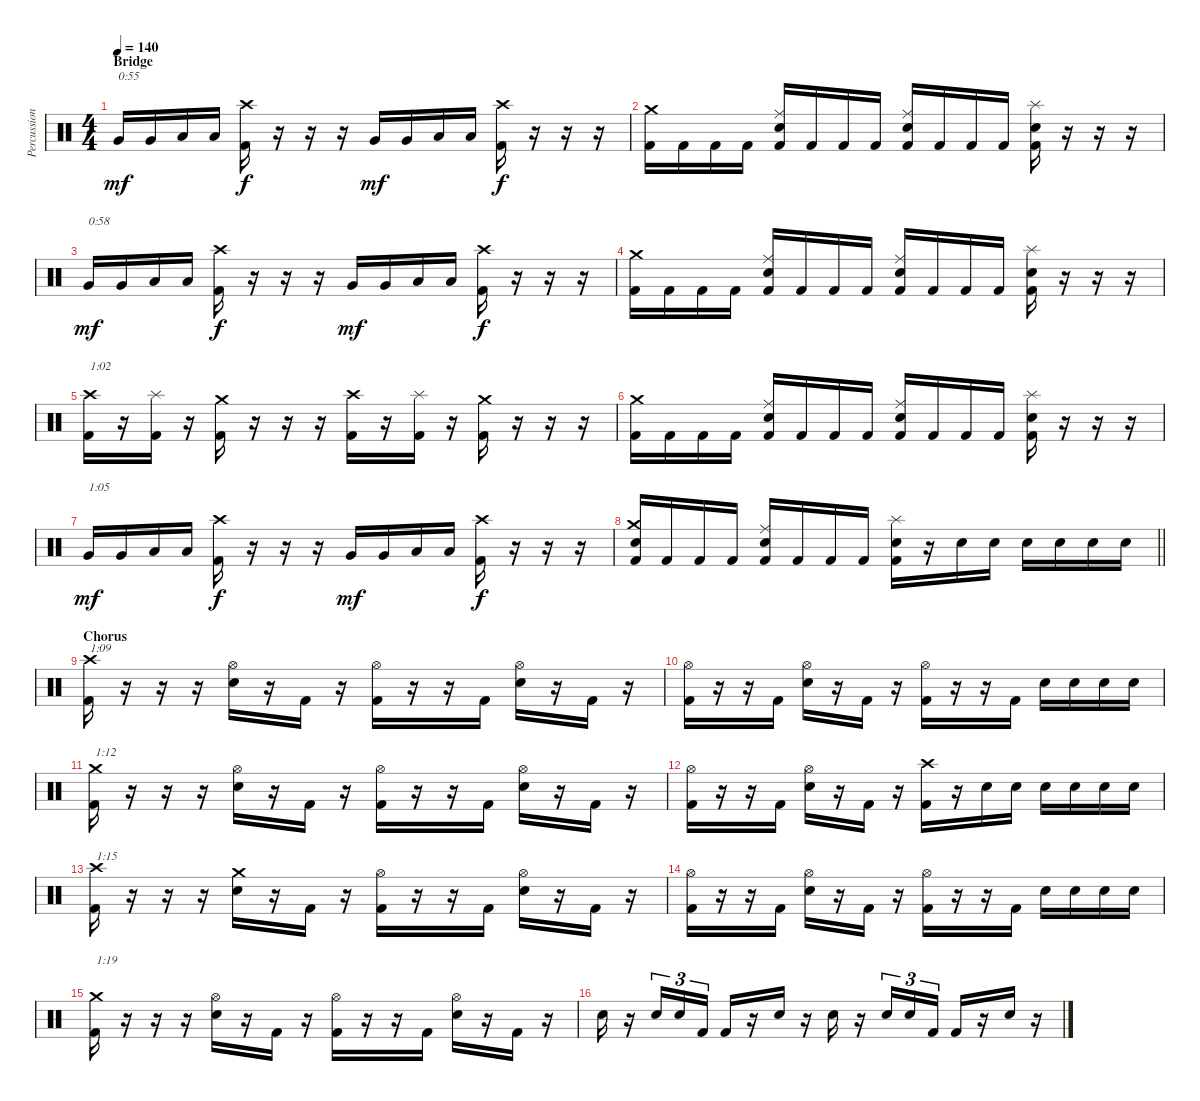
\track ("Percussion" "Percussion") {instrument percussion}
\staff {score}
\articulation defaults
\ts (4 4)
\section ("" "Bridge")
\tempo 140
\clef neutral
\ks c "Very Low Tom (hit)".16{txt "0:55" dy mf} "Very Low Tom (hit)".16 "Low Floor Tom (hit)".16 "Low Floor Tom (hit)".16
("Crash high (hit)" "Kick (hit) 2").16{dy f} r.16 r.16 r.16 "Very Low Tom (hit)".16{dy mf} "Very Low Tom (hit)".16 "Low Floor Tom (hit)".16 "Low Floor Tom (hit)".16 ("Crash high (hit)" "Kick (hit) 2").16{dy f} r.16 r.16 r.16 |
("Crash medium (hit)" "Kick (hit) 2").16 "Kick (hit) 2".16 "Kick (hit) 2".16 "Kick (hit) 2".16 ("Ride (middle)" "Electric Snare (hit)" "Kick (hit) 2").16 "Kick (hit) 2".16 "Kick (hit) 2".16 "Kick (hit) 2".16 ("Ride (middle)" "Electric Snare (hit)" "Kick (hit) 2").16 "Kick (hit) 2".16 "Kick (hit) 2".16 "Kick (hit) 2".16 ("Splash (hit)" "Electric Snare (hit)" "Kick (hit) 2").16 r.16 r.16 r.16 |
"Very Low Tom (hit)".16{txt "0:58" dy mf} "Very Low Tom (hit)".16 "Low Floor Tom (hit)".16 "Low Floor Tom (hit)".16 ("Crash high (hit)" "Kick (hit) 2").16{dy f} r.16 r.16 r.16 "Very Low Tom (hit)".16{dy mf} "Very Low Tom (hit)".16 "Low Floor Tom (hit)".16 "Low Floor Tom (hit)".16 ("Crash high (hit)" "Kick (hit) 2").16{dy f} r.16 r.16 r.16 |
("Crash medium (hit)" "Kick (hit) 2").16 "Kick (hit) 2".16 "Kick (hit) 2".16 "Kick (hit) 2".16 ("Ride (middle)" "Electric Snare (hit)" "Kick (hit) 2").16 "Kick (hit) 2".16 "Kick (hit) 2".16 "Kick (hit) 2".16 ("Ride (middle)" "Electric Snare (hit)" "Kick (hit) 2").16 "Kick (hit) 2".16 "Kick (hit) 2".16 "Kick (hit) 2".16 ("Splash (hit)" "Electric Snare (hit)" "Kick (hit) 2").16 r.16 r.16 r.16 |
("Crash high (hit)" "Kick (hit) 2").16{txt "1:02"} r.16 ("Splash (hit)" "Kick (hit) 2").16 r.16 ("Crash medium (hit)" "Kick (hit) 2").16 r.16 r.16 r.16 ("Crash high (hit)" "Kick (hit) 2").16 r.16 ("Splash (hit)" "Kick (hit) 2").16 r.16 ("Crash medium (hit)" "Kick (hit) 2").16 r.16 r.16 r.16 |
("Crash medium (hit)" "Kick (hit) 2").16 "Kick (hit) 2".16 "Kick (hit) 2".16 "Kick (hit) 2".16 ("Ride (middle)" "Electric Snare (hit)" "Kick (hit) 2").16 "Kick (hit) 2".16 "Kick (hit) 2".16 "Kick (hit) 2".16 ("Ride (middle)" "Electric Snare (hit)" "Kick (hit) 2").16 "Kick (hit) 2".16 "Kick (hit) 2".16 "Kick (hit) 2".16 ("Splash (hit)" "Electric Snare (hit)" "Kick (hit) 2").16 r.16 r.16 r.16 |
"Very Low Tom (hit)".16{txt "1:05" dy mf} "Very Low Tom (hit)".16 "Low Floor Tom (hit)".16 "Low Floor Tom (hit)".16 ("Crash high (hit)" "Kick (hit) 2").16{dy f} r.16 r.16 r.16 "Very Low Tom (hit)".16{dy mf} "Very Low Tom (hit)".16 "Low Floor Tom (hit)".16 "Low Floor Tom (hit)".16 ("Crash high (hit)" "Kick (hit) 2").16{dy f} r.16 r.16 r.16 |
\barLineRight lightlight
("Crash medium (hit)" "Electric Snare (hit)" "Kick (hit) 2").16 "Kick (hit) 2".16 "Kick (hit) 2".16 "Kick (hit) 2".16 ("Ride (middle)" "Electric Snare (hit)" "Kick (hit) 2").16 "Kick (hit) 2".16 "Kick (hit) 2".16 "Kick (hit) 2".16 ("Splash (hit)" "Electric Snare (hit)" "Kick (hit) 2").16 r.16 "Electric Snare (hit)".16 "Electric Snare (hit)".16 "Electric Snare (hit)".16 "Electric Snare (hit)".16 "Electric Snare (hit)".16 "Electric Snare (hit)".16 |
\section ("" "Chorus")
("Crash high (hit)" "Kick (hit) 2").16{txt "1:09"} r.16 r.16 r.16 ("Hi-Hat (open)" "Electric Snare (hit)").16 r.16 "Kick (hit) 2".16 r.16 ("Hi-Hat (open)" "Kick (hit) 2").16 r.16 r.16 "Kick (hit) 2".16 ("Hi-Hat (open)" "Electric Snare (hit)").16 r.16 "Kick (hit) 2".16 r.16 |
("Hi-Hat (open)" "Kick (hit) 2").16 r.16 r.16 "Kick (hit) 2".16 ("Hi-Hat (open)" "Electric Snare (hit)").16 r.16 "Kick (hit) 2".16 r.16 ("Hi-Hat (open)" "Kick (hit) 2").16 r.16 r.16 "Kick (hit) 2".16 "Electric Snare (hit)".16 "Electric Snare (hit)".16 "Electric Snare (hit)".16 "Electric Snare (hit)".16 |
("Crash medium (hit)" "Kick (hit) 2").16{txt "1:12"} r.16 r.16 r.16 ("Hi-Hat (open)" "Electric Snare (hit)").16 r.16 "Kick (hit) 2".16 r.16 ("Hi-Hat (open)" "Kick (hit) 2").16 r.16 r.16 "Kick (hit) 2".16 ("Hi-Hat (open)" "Electric Snare (hit)").16 r.16 "Kick (hit) 2".16 r.16 |
("Hi-Hat (open)" "Kick (hit) 2").16 r.16 r.16 "Kick (hit) 2".16 ("Hi-Hat (open)" "Electric Snare (hit)").16 r.16 "Kick (hit) 2".16 r.16 ("Crash high (hit)" "Kick (hit) 2").16 r.16 "Electric Snare (hit)".16 "Electric Snare (hit)".16 "Electric Snare (hit)".16 "Electric Snare (hit)".16 "Electric Snare (hit)".16 "Electric Snare (hit)".16 |
("Crash high (hit)" "Kick (hit) 2").16{txt "1:15"} r.16 r.16 r.16 ("Crash medium (hit)" "Electric Snare (hit)").16 r.16 "Kick (hit) 2".16 r.16 ("Hi-Hat (open)" "Kick (hit) 2").16 r.16 r.16 "Kick (hit) 2".16 ("Hi-Hat (open)" "Electric Snare (hit)").16 r.16 "Kick (hit) 2".16 r.16 |
("Hi-Hat (open)" "Kick (hit) 2").16 r.16 r.16 "Kick (hit) 2".16 ("Hi-Hat (open)" "Electric Snare (hit)").16 r.16 "Kick (hit) 2".16 r.16 ("Hi-Hat (open)" "Kick (hit) 2").16 r.16 r.16 "Kick (hit) 2".16 "Electric Snare (hit)".16 "Electric Snare (hit)".16 "Electric Snare (hit)".16 "Electric Snare (hit)".16 |
("Crash medium (hit)" "Kick (hit) 2").16{txt "1:19"} r.16 r.16 r.16 ("Hi-Hat (open)" "Electric Snare (hit)").16 r.16 "Kick (hit) 2".16 r.16 ("Hi-Hat (open)" "Kick (hit) 2").16 r.16 r.16 "Kick (hit) 2".16 ("Hi-Hat (open)" "Electric Snare (hit)").16 r.16 "Kick (hit) 2".16 r.16 |
"Electric Snare (hit)".16 r.16 "Electric Snare (hit)".16{tu (3 2)} "Electric Snare (hit)".16{tu (3 2)} "Kick (hit) 2".16{tu (3 2)} "Kick (hit) 2".16 r.16 "Electric Snare (hit)".16 r.16 "Electric Snare (hit)".16 r.16 "Electric Snare (hit)".16{tu (3 2)} "Electric Snare (hit)".16{tu (3 2)} "Kick (hit) 2".16{tu (3 2)} "Kick (hit) 2".16 r.16 "Electric Snare (hit)".16 r.16
